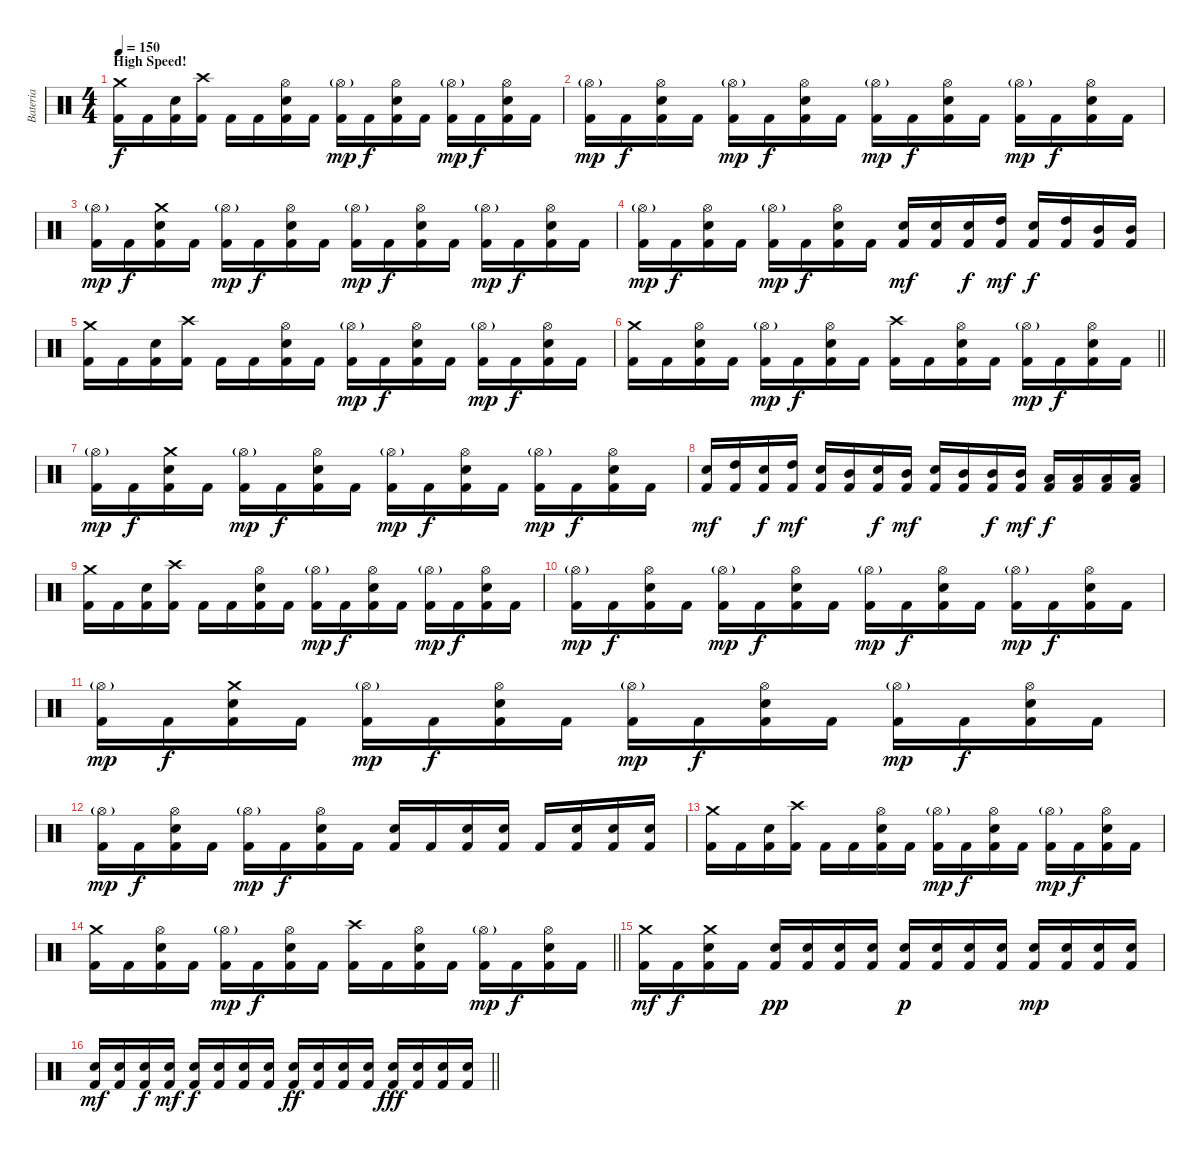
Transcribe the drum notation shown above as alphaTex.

\track ("Bateria" "Bateria") {instrument percussion}
\staff {score}
\articulation defaults
\ts (4 4)
\section ("" "High Speed!")
\tempo 150
\clef neutral
\ks c
("Crash medium (hit)" "Kick (hit) 2").16{dy f} "Kick (hit) 2".16 ("Electric Snare (hit)" "Kick (hit) 2").16 ("Crash high (hit)" "Kick (hit) 2").16 "Kick (hit) 2".16 "Kick (hit) 2".16 ("Hi-Hat (open)" "Electric Snare (hit)" "Kick (hit) 2").16 "Kick (hit) 2".16 ("Hi-Hat (open)"{g} "Kick (hit) 2").16{dy mp} "Kick (hit) 2".16{dy f} ("Hi-Hat (open)" "Electric Snare (hit)" "Kick (hit) 2").16 "Kick (hit) 2".16 ("Hi-Hat (open)"{g} "Kick (hit) 2").16{dy mp} "Kick (hit) 2".16{dy f} ("Hi-Hat (open)" "Electric Snare (hit)" "Kick (hit) 2").16 "Kick (hit) 2".16 |
("Hi-Hat (open)"{g} "Kick (hit) 2").16{dy mp} "Kick (hit) 2".16{dy f} ("Hi-Hat (open)" "Electric Snare (hit)" "Kick (hit) 2").16 "Kick (hit) 2".16 ("Hi-Hat (open)"{g} "Kick (hit) 2").16{dy mp} "Kick (hit) 2".16{dy f} ("Hi-Hat (open)" "Electric Snare (hit)" "Kick (hit) 2").16 "Kick (hit) 2".16 ("Hi-Hat (open)"{g} "Kick (hit) 2").16{dy mp} "Kick (hit) 2".16{dy f} ("Hi-Hat (open)" "Electric Snare (hit)" "Kick (hit) 2").16 "Kick (hit) 2".16 ("Hi-Hat (open)"{g} "Kick (hit) 2").16{dy mp} "Kick (hit) 2".16{dy f} ("Hi-Hat (open)" "Electric Snare (hit)" "Kick (hit) 2").16 "Kick (hit) 2".16 |
("Hi-Hat (open)"{g} "Kick (hit) 2").16{dy mp} "Kick (hit) 2".16{dy f} ("Crash medium (hit)" "Electric Snare (hit)" "Kick (hit) 2").16 "Kick (hit) 2".16 ("Hi-Hat (open)"{g} "Kick (hit) 2").16{dy mp} "Kick (hit) 2".16{dy f} ("Hi-Hat (open)" "Electric Snare (hit)" "Kick (hit) 2").16 "Kick (hit) 2".16 ("Hi-Hat (open)"{g} "Kick (hit) 2").16{dy mp} "Kick (hit) 2".16{dy f} ("Hi-Hat (open)" "Electric Snare (hit)" "Kick (hit) 2").16 "Kick (hit) 2".16 ("Hi-Hat (open)"{g} "Kick (hit) 2").16{dy mp} "Kick (hit) 2".16{dy f} ("Hi-Hat (open)" "Electric Snare (hit)" "Kick (hit) 2").16 "Kick (hit) 2".16 |
("Hi-Hat (open)"{g} "Kick (hit) 2").16{dy mp} "Kick (hit) 2".16{dy f} ("Hi-Hat (open)" "Electric Snare (hit)" "Kick (hit) 2").16 "Kick (hit) 2".16 ("Hi-Hat (open)"{g} "Kick (hit) 2").16{dy mp} "Kick (hit) 2".16{dy f} ("Hi-Hat (open)" "Electric Snare (hit)" "Kick (hit) 2").16 "Kick (hit) 2".16 ("Electric Snare (hit)" "Kick (hit) 2").16{dy mf} ("Electric Snare (hit)" "Kick (hit) 2").16 ("Electric Snare (hit)" "Kick (hit) 2").16{dy f} ("High Tom (hit)" "Kick (hit) 2").16{dy mf} ("Electric Snare (hit)" "Kick (hit) 2").16{dy f} ("High Tom (hit)" "Kick (hit) 2").16 ("Mid Tom (hit)" "Kick (hit) 2").16 ("Mid Tom (hit)" "Kick (hit) 2").16 |
("Crash medium (hit)" "Kick (hit) 2").16 "Kick (hit) 2".16 ("Electric Snare (hit)" "Kick (hit) 2").16 ("Crash high (hit)" "Kick (hit) 2").16 "Kick (hit) 2".16 "Kick (hit) 2".16 ("Hi-Hat (open)" "Electric Snare (hit)" "Kick (hit) 2").16 "Kick (hit) 2".16 ("Hi-Hat (open)"{g} "Kick (hit) 2").16{dy mp} "Kick (hit) 2".16{dy f} ("Hi-Hat (open)" "Electric Snare (hit)" "Kick (hit) 2").16 "Kick (hit) 2".16 ("Hi-Hat (open)"{g} "Kick (hit) 2").16{dy mp} "Kick (hit) 2".16{dy f} ("Hi-Hat (open)" "Electric Snare (hit)" "Kick (hit) 2").16 "Kick (hit) 2".16 |
\barLineRight lightlight
("Crash medium (hit)" "Kick (hit) 2").16 "Kick (hit) 2".16 ("Hi-Hat (open)" "Electric Snare (hit)" "Kick (hit) 2").16 "Kick (hit) 2".16 ("Hi-Hat (open)"{g} "Kick (hit) 2").16{dy mp} "Kick (hit) 2".16{dy f} ("Hi-Hat (open)" "Electric Snare (hit)" "Kick (hit) 2").16 "Kick (hit) 2".16 ("Crash high (hit)" "Kick (hit) 2").16 "Kick (hit) 2".16 ("Hi-Hat (open)" "Electric Snare (hit)" "Kick (hit) 2").16 "Kick (hit) 2".16 ("Hi-Hat (open)"{g} "Kick (hit) 2").16{dy mp} "Kick (hit) 2".16{dy f} ("Hi-Hat (open)" "Electric Snare (hit)" "Kick (hit) 2").16 "Kick (hit) 2".16 |
("Hi-Hat (open)"{g} "Kick (hit) 2").16{dy mp} "Kick (hit) 2".16{dy f} ("Crash medium (hit)" "Electric Snare (hit)" "Kick (hit) 2").16 "Kick (hit) 2".16 ("Hi-Hat (open)"{g} "Kick (hit) 2").16{dy mp} "Kick (hit) 2".16{dy f} ("Hi-Hat (open)" "Electric Snare (hit)" "Kick (hit) 2").16 "Kick (hit) 2".16 ("Hi-Hat (open)"{g} "Kick (hit) 2").16{dy mp} "Kick (hit) 2".16{dy f} ("Hi-Hat (open)" "Electric Snare (hit)" "Kick (hit) 2").16 "Kick (hit) 2".16 ("Hi-Hat (open)"{g} "Kick (hit) 2").16{dy mp} "Kick (hit) 2".16{dy f} ("Hi-Hat (open)" "Electric Snare (hit)" "Kick (hit) 2").16 "Kick (hit) 2".16 |
("Electric Snare (hit)" "Kick (hit) 2").16{dy mf} ("High Tom (hit)" "Kick (hit) 2").16 ("Electric Snare (hit)" "Kick (hit) 2").16{dy f} ("High Tom (hit)" "Kick (hit) 2").16{dy mf} ("Electric Snare (hit)" "Kick (hit) 2").16 ("Mid Tom (hit)" "Kick (hit) 2").16 ("Electric Snare (hit)" "Kick (hit) 2").16{dy f} ("Mid Tom (hit)" "Kick (hit) 2").16{dy mf} ("Electric Snare (hit)" "Kick (hit) 2").16 ("Mid Tom (hit)" "Kick (hit) 2").16 ("Mid Tom (hit)" "Kick (hit) 2").16{dy f} ("Mid Tom (hit)" "Kick (hit) 2").16{dy mf} ("Low Tom (hit)" "Kick (hit) 2").16{dy f} ("Low Tom (hit)" "Kick (hit) 2").16 ("Low Tom (hit)" "Kick (hit) 2").16 ("Low Tom (hit)" "Kick (hit) 2").16 |
("Crash medium (hit)" "Kick (hit) 2").16 "Kick (hit) 2".16 ("Electric Snare (hit)" "Kick (hit) 2").16 ("Crash high (hit)" "Kick (hit) 2").16 "Kick (hit) 2".16 "Kick (hit) 2".16 ("Hi-Hat (open)" "Electric Snare (hit)" "Kick (hit) 2").16 "Kick (hit) 2".16 ("Hi-Hat (open)"{g} "Kick (hit) 2").16{dy mp} "Kick (hit) 2".16{dy f} ("Hi-Hat (open)" "Electric Snare (hit)" "Kick (hit) 2").16 "Kick (hit) 2".16 ("Hi-Hat (open)"{g} "Kick (hit) 2").16{dy mp} "Kick (hit) 2".16{dy f} ("Hi-Hat (open)" "Electric Snare (hit)" "Kick (hit) 2").16 "Kick (hit) 2".16 |
("Hi-Hat (open)"{g} "Kick (hit) 2").16{dy mp} "Kick (hit) 2".16{dy f} ("Hi-Hat (open)" "Electric Snare (hit)" "Kick (hit) 2").16 "Kick (hit) 2".16 ("Hi-Hat (open)"{g} "Kick (hit) 2").16{dy mp} "Kick (hit) 2".16{dy f} ("Hi-Hat (open)" "Electric Snare (hit)" "Kick (hit) 2").16 "Kick (hit) 2".16 ("Hi-Hat (open)"{g} "Kick (hit) 2").16{dy mp} "Kick (hit) 2".16{dy f} ("Hi-Hat (open)" "Electric Snare (hit)" "Kick (hit) 2").16 "Kick (hit) 2".16 ("Hi-Hat (open)"{g} "Kick (hit) 2").16{dy mp} "Kick (hit) 2".16{dy f} ("Hi-Hat (open)" "Electric Snare (hit)" "Kick (hit) 2").16 "Kick (hit) 2".16 |
("Hi-Hat (open)"{g} "Kick (hit) 2").16{dy mp} "Kick (hit) 2".16{dy f} ("Crash medium (hit)" "Electric Snare (hit)" "Kick (hit) 2").16 "Kick (hit) 2".16 ("Hi-Hat (open)"{g} "Kick (hit) 2").16{dy mp} "Kick (hit) 2".16{dy f} ("Hi-Hat (open)" "Electric Snare (hit)" "Kick (hit) 2").16 "Kick (hit) 2".16 ("Hi-Hat (open)"{g} "Kick (hit) 2").16{dy mp} "Kick (hit) 2".16{dy f} ("Hi-Hat (open)" "Electric Snare (hit)" "Kick (hit) 2").16 "Kick (hit) 2".16 ("Hi-Hat (open)"{g} "Kick (hit) 2").16{dy mp} "Kick (hit) 2".16{dy f} ("Hi-Hat (open)" "Electric Snare (hit)" "Kick (hit) 2").16 "Kick (hit) 2".16 |
("Hi-Hat (open)"{g} "Kick (hit) 2").16{dy mp} "Kick (hit) 2".16{dy f} ("Hi-Hat (open)" "Electric Snare (hit)" "Kick (hit) 2").16 "Kick (hit) 2".16 ("Hi-Hat (open)"{g} "Kick (hit) 2").16{dy mp} "Kick (hit) 2".16{dy f} ("Hi-Hat (open)" "Electric Snare (hit)" "Kick (hit) 2").16 "Kick (hit) 2".16 ("Electric Snare (hit)" "Kick (hit) 2").16 "Kick (hit) 2".16 ("Electric Snare (hit)" "Kick (hit) 2").16 ("Electric Snare (hit)" "Kick (hit) 2").16 "Kick (hit) 2".16 ("Electric Snare (hit)" "Kick (hit) 2").16 ("Electric Snare (hit)" "Kick (hit) 2").16 ("Electric Snare (hit)" "Kick (hit) 2").16 |
("Crash medium (hit)" "Kick (hit) 2").16 "Kick (hit) 2".16 ("Electric Snare (hit)" "Kick (hit) 2").16 ("Crash high (hit)" "Kick (hit) 2").16 "Kick (hit) 2".16 "Kick (hit) 2".16 ("Hi-Hat (open)" "Electric Snare (hit)" "Kick (hit) 2").16 "Kick (hit) 2".16 ("Hi-Hat (open)"{g} "Kick (hit) 2").16{dy mp} "Kick (hit) 2".16{dy f} ("Hi-Hat (open)" "Electric Snare (hit)" "Kick (hit) 2").16 "Kick (hit) 2".16 ("Hi-Hat (open)"{g} "Kick (hit) 2").16{dy mp} "Kick (hit) 2".16{dy f} ("Hi-Hat (open)" "Electric Snare (hit)" "Kick (hit) 2").16 "Kick (hit) 2".16 |
\barLineRight lightlight
("Crash medium (hit)" "Kick (hit) 2").16 "Kick (hit) 2".16 ("Hi-Hat (open)" "Electric Snare (hit)" "Kick (hit) 2").16 "Kick (hit) 2".16 ("Hi-Hat (open)"{g} "Kick (hit) 2").16{dy mp} "Kick (hit) 2".16{dy f} ("Hi-Hat (open)" "Electric Snare (hit)" "Kick (hit) 2").16 "Kick (hit) 2".16 ("Crash high (hit)" "Kick (hit) 2").16 "Kick (hit) 2".16 ("Hi-Hat (open)" "Electric Snare (hit)" "Kick (hit) 2").16 "Kick (hit) 2".16 ("Hi-Hat (open)"{g} "Kick (hit) 2").16{dy mp} "Kick (hit) 2".16{dy f} ("Hi-Hat (open)" "Electric Snare (hit)" "Kick (hit) 2").16 "Kick (hit) 2".16 |
("Crash medium (hit)" "Kick (hit) 2").16{dy mf} "Kick (hit) 2".16{dy f} ("Crash medium (hit)" "Electric Snare (hit)" "Kick (hit) 2").16 "Kick (hit) 2".16 ("Electric Snare (hit)" "Kick (hit) 2").16{dy pp} ("Electric Snare (hit)" "Kick (hit) 2").16 ("Electric Snare (hit)" "Kick (hit) 2").16 ("Electric Snare (hit)" "Kick (hit) 2").16 ("Electric Snare (hit)" "Kick (hit) 2").16{dy p} ("Electric Snare (hit)" "Kick (hit) 2").16 ("Electric Snare (hit)" "Kick (hit) 2").16 ("Electric Snare (hit)" "Kick (hit) 2").16 ("Electric Snare (hit)" "Kick (hit) 2").16{dy mp} ("Electric Snare (hit)" "Kick (hit) 2").16 ("Electric Snare (hit)" "Kick (hit) 2").16 ("Electric Snare (hit)" "Kick (hit) 2").16 |
\barLineRight lightlight
("Electric Snare (hit)" "Kick (hit) 2").16{dy mf} ("Electric Snare (hit)" "Kick (hit) 2").16 ("Electric Snare (hit)" "Kick (hit) 2").16{dy f} ("Electric Snare (hit)" "Kick (hit) 2").16{dy mf} ("Electric Snare (hit)" "Kick (hit) 2").16{dy f} ("Electric Snare (hit)" "Kick (hit) 2").16 ("Electric Snare (hit)" "Kick (hit) 2").16 ("Electric Snare (hit)" "Kick (hit) 2").16 ("Electric Snare (hit)" "Kick (hit) 2").16{dy ff} ("Electric Snare (hit)" "Kick (hit) 2").16 ("Electric Snare (hit)" "Kick (hit) 2").16 ("Electric Snare (hit)" "Kick (hit) 2").16 ("Electric Snare (hit)" "Kick (hit) 2").16{dy fff} ("Electric Snare (hit)" "Kick (hit) 2").16 ("Electric Snare (hit)" "Kick (hit) 2").16 ("Electric Snare (hit)" "Kick (hit) 2").16
